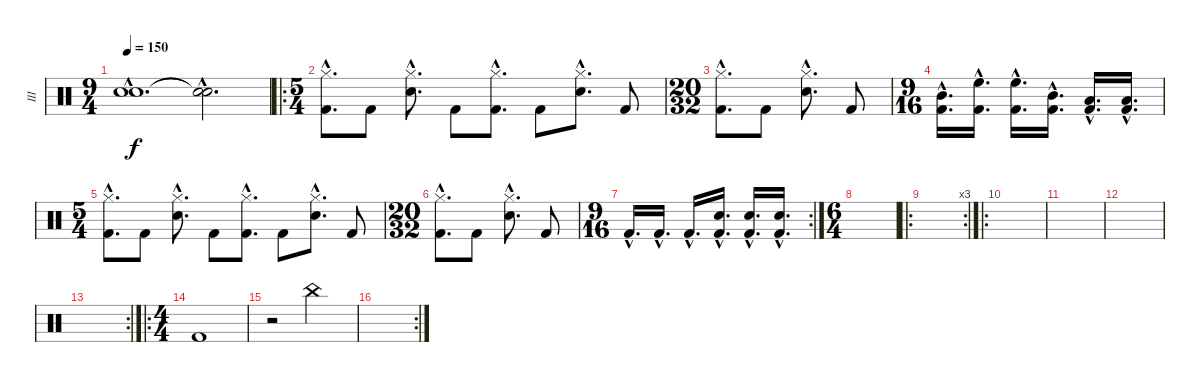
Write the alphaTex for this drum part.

\track ("III" "III") {instrument percussion}
\staff {score}
\articulation defaults
\ts (9 4)
\tempo 150
\clef neutral
\ks c
("Snare (hit)"{hac t} "Snare (hit)"{hac t}).1{d dy f} ("Snare (hit)"{hac t} "Snare (hit)"{hac t}).2{d} |
\ro
\ts (5 4)
("Kick (hit) 2"{hac} "Hi-Hat (closed)"{hac}).8{d} "Kick (hit) 2".8 ("Hi-Hat (closed)"{hac} "Snare (hit) 2"{hac}).8{d} "Kick (hit) 2".8 ("Kick (hit) 2"{hac} "Hi-Hat (closed)"{hac}).8{d} "Kick (hit) 2".8 ("Hi-Hat (closed)"{hac} "Snare (hit) 2"{hac}).8{d} "Kick (hit) 2".8 |
\ts (20 32)
("Kick (hit) 2"{hac} "Hi-Hat (closed)"{hac}).8{d} "Kick (hit) 2".8 ("Hi-Hat (closed)"{hac} "Snare (hit) 2"{hac}).8{d} "Kick (hit) 2".8 |
\ts (9 16)
("Kick (hit) 2"{hac} "Mid Tom (hit)"{hac}).16{d} ("Kick (hit) 2"{hac} "High Floor Tom (hit)"{hac}).16{d} ("Kick (hit) 2"{hac} "High Floor Tom (hit)"{hac}).16{d} ("Kick (hit) 2"{hac} "Mid Tom (hit)"{hac}).16{d} ("Kick (hit) 2"{hac} "Low Tom (hit)"{hac}).16{d} ("Kick (hit) 2"{hac} "Low Floor Tom (hit)"{hac}).16{d} |
\ts (5 4)
("Kick (hit) 2"{hac} "Hi-Hat (closed)"{hac}).8{d} "Kick (hit) 2".8 ("Hi-Hat (closed)"{hac} "Snare (hit) 2"{hac}).8{d} "Kick (hit) 2".8 ("Kick (hit) 2"{hac} "Hi-Hat (closed)"{hac}).8{d} "Kick (hit) 2".8 ("Hi-Hat (closed)"{hac} "Snare (hit) 2"{hac}).8{d} "Kick (hit) 2".8 |
\ts (20 32)
("Kick (hit) 2"{hac} "Hi-Hat (closed)"{hac}).8{d} "Kick (hit) 2".8 ("Hi-Hat (closed)"{hac} "Snare (hit) 2"{hac}).8{d} "Kick (hit) 2".8 |
\rc 2
\ts (9 16)
"Kick (hit) 2"{hac}.16{d} "Kick (hit) 2"{hac}.16{d} "Kick (hit) 2"{hac}.16{d} ("Kick (hit) 2"{hac} "Snare (hit) 2"{hac}).16{d} ("Kick (hit) 2"{hac} "Snare (hit) 2"{hac}).16{d} ("Kick (hit) 2"{hac} "Snare (hit) 2"{hac}).16{d} |
\ts (6 4)
|
\ro
\rc 3
|
\ro
|
|
|
\rc 2
|
\ro
\ts (4 4)
"Kick (hit) 2".1 |
r.2 "China (hit)".2 |
\rc 2
